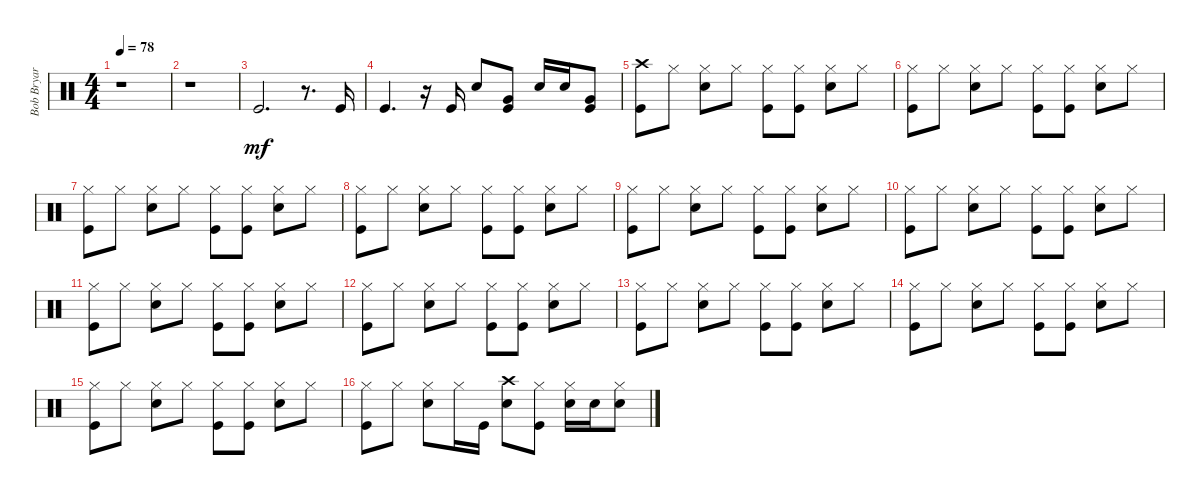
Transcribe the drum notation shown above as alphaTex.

\track ("Bob Bryar (drums)" "Bob Bryar ") {instrument percussion}
\staff {score}
\articulation defaults
\ts (4 4)
\tempo 78
\clef neutral
\ks c
r.1{dy mf} |
r.1 |
"Kick (hit)".2{d} r.8{d} "Kick (hit)".16 |
"Kick (hit)".4{d} r.16 "Kick (hit)".16 "Snare (hit) 2".8 ("Very Low Tom (hit)" "Kick (hit)").8 "Snare (hit) 2".16 "Snare (hit) 2".16 ("Very Low Tom (hit)" "Kick (hit)").8 |
("Crash high (hit)" "Kick (hit)").8 "Hi-Hat (closed)".8 ("Hi-Hat (closed)" "Snare (hit) 2").8 "Hi-Hat (closed)".8 ("Hi-Hat (closed)" "Kick (hit)").8 ("Hi-Hat (closed)" "Kick (hit)").8 ("Hi-Hat (closed)" "Snare (hit) 2").8 "Hi-Hat (closed)".8 |
("Hi-Hat (closed)" "Kick (hit)").8 "Hi-Hat (closed)".8 ("Hi-Hat (closed)" "Snare (hit) 2").8 "Hi-Hat (closed)".8 ("Hi-Hat (closed)" "Kick (hit)").8 ("Hi-Hat (closed)" "Kick (hit)").8 ("Hi-Hat (closed)" "Snare (hit) 2").8 "Hi-Hat (closed)".8 |
("Hi-Hat (closed)" "Kick (hit)").8 "Hi-Hat (closed)".8 ("Hi-Hat (closed)" "Snare (hit) 2").8 "Hi-Hat (closed)".8 ("Hi-Hat (closed)" "Kick (hit)").8 ("Hi-Hat (closed)" "Kick (hit)").8 ("Hi-Hat (closed)" "Snare (hit) 2").8 "Hi-Hat (closed)".8 |
("Hi-Hat (closed)" "Kick (hit)").8 "Hi-Hat (closed)".8 ("Hi-Hat (closed)" "Snare (hit) 2").8 "Hi-Hat (closed)".8 ("Hi-Hat (closed)" "Kick (hit)").8 ("Hi-Hat (closed)" "Kick (hit)").8 ("Hi-Hat (closed)" "Snare (hit) 2").8 "Hi-Hat (closed)".8 |
("Hi-Hat (closed)" "Kick (hit)").8 "Hi-Hat (closed)".8 ("Hi-Hat (closed)" "Snare (hit) 2").8 "Hi-Hat (closed)".8 ("Hi-Hat (closed)" "Kick (hit)").8 ("Hi-Hat (closed)" "Kick (hit)").8 ("Hi-Hat (closed)" "Snare (hit) 2").8 "Hi-Hat (closed)".8 |
("Hi-Hat (closed)" "Kick (hit)").8 "Hi-Hat (closed)".8 ("Hi-Hat (closed)" "Snare (hit) 2").8 "Hi-Hat (closed)".8 ("Hi-Hat (closed)" "Kick (hit)").8 ("Hi-Hat (closed)" "Kick (hit)").8 ("Hi-Hat (closed)" "Snare (hit) 2").8 "Hi-Hat (closed)".8 |
("Hi-Hat (closed)" "Kick (hit)").8 "Hi-Hat (closed)".8 ("Hi-Hat (closed)" "Snare (hit) 2").8 "Hi-Hat (closed)".8 ("Hi-Hat (closed)" "Kick (hit)").8 ("Hi-Hat (closed)" "Kick (hit)").8 ("Hi-Hat (closed)" "Snare (hit) 2").8 "Hi-Hat (closed)".8 |
("Hi-Hat (closed)" "Kick (hit)").8 "Hi-Hat (closed)".8 ("Hi-Hat (closed)" "Snare (hit) 2").8 "Hi-Hat (closed)".8 ("Hi-Hat (closed)" "Kick (hit)").8 ("Hi-Hat (closed)" "Kick (hit)").8 ("Hi-Hat (closed)" "Snare (hit) 2").8 "Hi-Hat (closed)".8 |
("Hi-Hat (closed)" "Kick (hit)").8 "Hi-Hat (closed)".8 ("Hi-Hat (closed)" "Snare (hit) 2").8 "Hi-Hat (closed)".8 ("Hi-Hat (closed)" "Kick (hit)").8 ("Hi-Hat (closed)" "Kick (hit)").8 ("Hi-Hat (closed)" "Snare (hit) 2").8 "Hi-Hat (closed)".8 |
("Hi-Hat (closed)" "Kick (hit)").8 "Hi-Hat (closed)".8 ("Hi-Hat (closed)" "Snare (hit) 2").8 "Hi-Hat (closed)".8 ("Hi-Hat (closed)" "Kick (hit)").8 ("Hi-Hat (closed)" "Kick (hit)").8 ("Hi-Hat (closed)" "Snare (hit) 2").8 "Hi-Hat (closed)".8 |
("Hi-Hat (closed)" "Kick (hit)").8 "Hi-Hat (closed)".8 ("Hi-Hat (closed)" "Snare (hit) 2").8 "Hi-Hat (closed)".8 ("Hi-Hat (closed)" "Kick (hit)").8 ("Hi-Hat (closed)" "Kick (hit)").8 ("Hi-Hat (closed)" "Snare (hit) 2").8 "Hi-Hat (closed)".8 |
("Hi-Hat (closed)" "Kick (hit)").8 "Hi-Hat (closed)".8 ("Hi-Hat (closed)" "Snare (hit) 2").8 "Hi-Hat (closed)".16 "Kick (hit)".16 ("Crash high (hit)" "Snare (hit) 2").8 ("Hi-Hat (closed)" "Kick (hit)").8 ("Hi-Hat (closed)" "Snare (hit) 2").16 "Snare (hit) 2".16 ("Hi-Hat (closed)" "Snare (hit) 2").8
